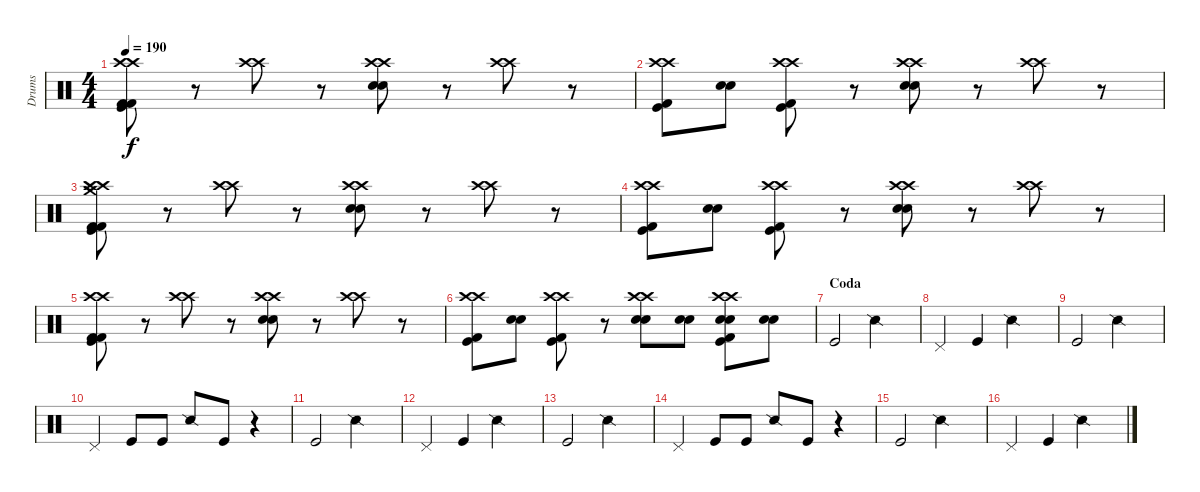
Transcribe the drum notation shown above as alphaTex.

\track ("Drums" "Drums") {instrument percussion}
\staff {score}
\articulation defaults
\ts (4 4)
\tempo 190
\clef neutral
\ks c
("Crash high (hit)" "Crash high (hit)" "Kick (hit) 2" "Kick (hit) 2" "Kick (hit)").8{dy f} r.8 ("Crash high (hit)" "Crash high (hit)").8 r.8 ("Crash high (hit)" "Crash high (hit)" "Electric Snare (hit)" "Electric Snare (hit)").8 r.8 ("Crash high (hit)" "Crash high (hit)").8 r.8 |
("Crash high (hit)" "Crash high (hit)" "Kick (hit) 2" "Kick (hit)").8 ("Electric Snare (hit)" "Electric Snare (hit)").8 ("Crash high (hit)" "Crash high (hit)" "Kick (hit) 2" "Kick (hit)").8 r.8 ("Crash high (hit)" "Crash high (hit)" "Electric Snare (hit)" "Electric Snare (hit)").8 r.8 ("Crash high (hit)" "Crash high (hit)").8 r.8 |
("Crash high (hit)" "Crash high (hit)" "Crash medium (hit)" "Kick (hit) 2" "Kick (hit) 2" "Kick (hit)").8 r.8 ("Crash high (hit)" "Crash high (hit)").8 r.8 ("Crash high (hit)" "Crash high (hit)" "Electric Snare (hit)" "Electric Snare (hit)").8 r.8 ("Crash high (hit)" "Crash high (hit)").8 r.8 |
("Crash high (hit)" "Crash high (hit)" "Kick (hit) 2" "Kick (hit)").8 ("Electric Snare (hit)" "Electric Snare (hit)").8 ("Crash high (hit)" "Crash high (hit)" "Kick (hit) 2" "Kick (hit)").8 r.8 ("Crash high (hit)" "Crash high (hit)" "Electric Snare (hit)" "Electric Snare (hit)").8 r.8 ("Crash high (hit)" "Crash high (hit)").8 r.8 |
("Crash high (hit)" "Crash high (hit)" "Kick (hit) 2" "Kick (hit) 2" "Kick (hit)").8 r.8 ("Crash high (hit)" "Crash high (hit)").8 r.8 ("Crash high (hit)" "Crash high (hit)" "Electric Snare (hit)" "Electric Snare (hit)").8 r.8 ("Crash high (hit)" "Crash high (hit)").8 r.8 |
("Crash high (hit)" "Crash high (hit)" "Kick (hit) 2" "Kick (hit)").8 ("Electric Snare (hit)" "Electric Snare (hit)").8 ("Crash high (hit)" "Crash high (hit)" "Kick (hit) 2" "Kick (hit)").8 r.8 ("Crash high (hit)" "Crash high (hit)" "Electric Snare (hit)" "Electric Snare (hit)").8 ("Electric Snare (hit)" "Electric Snare (hit)").8 ("Crash high (hit)" "Crash high (hit)" "Electric Snare (hit)" "Electric Snare (hit)" "Kick (hit) 2" "Kick (hit)").8 ("Electric Snare (hit)" "Electric Snare (hit)").8 |
\section ("" "Coda")
"Kick (hit)".2 "Snare (side stick) 2".2 |
"Pedal Hi-Hat (hit)".4 "Kick (hit)".4 "Snare (side stick) 2".2 |
"Kick (hit)".2 "Snare (side stick) 2".2 |
"Pedal Hi-Hat (hit)".4 "Kick (hit)".8 "Kick (hit)".8 "Snare (side stick) 2".8 "Kick (hit)".8 r.4 |
"Kick (hit)".2 "Snare (side stick) 2".2 |
"Pedal Hi-Hat (hit)".4 "Kick (hit)".4 "Snare (side stick) 2".2 |
"Kick (hit)".2 "Snare (side stick) 2".2 |
"Pedal Hi-Hat (hit)".4 "Kick (hit)".8 "Kick (hit)".8 "Snare (side stick) 2".8 "Kick (hit)".8 r.4 |
"Kick (hit)".2 "Snare (side stick) 2".2 |
"Pedal Hi-Hat (hit)".4 "Kick (hit)".4 "Snare (side stick) 2".2
